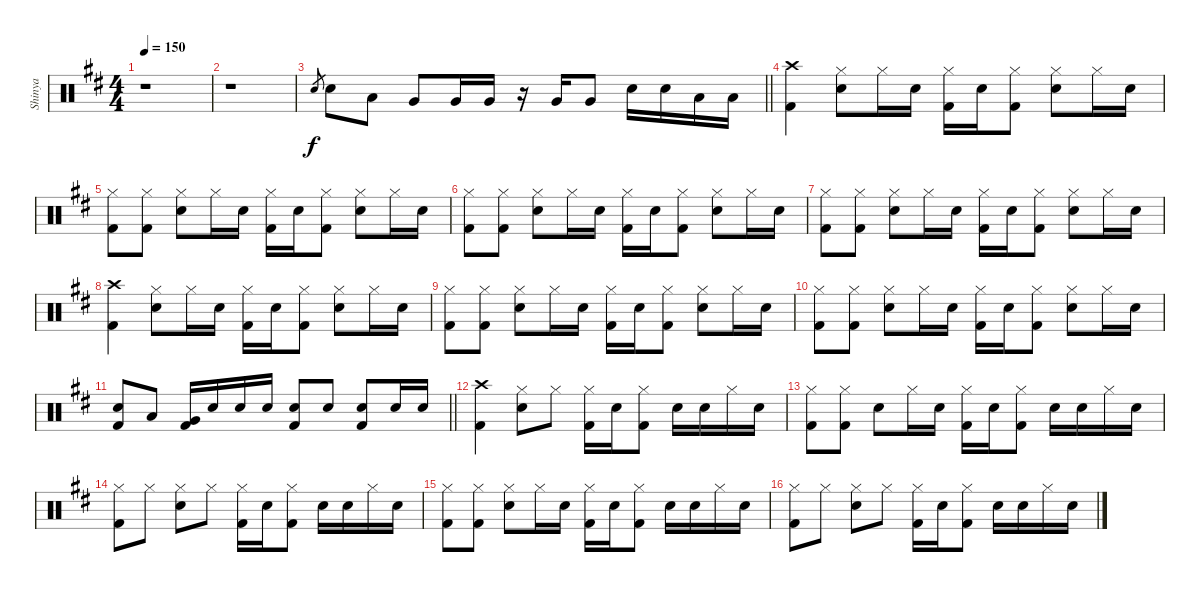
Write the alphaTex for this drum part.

\track ("Shinya" "Shinya") {instrument percussion}
\staff {score}
\articulation defaults
\ts (4 4)
\tempo 150
\clef neutral
\ks d
r.1{dy f} |
r.1 |
\barLineRight lightlight "Electric Snare (hit)".8{gr} "Electric Snare (hit)".8 "Low Tom (hit)".8 "Very Low Tom (hit)".8 "Very Low Tom (hit)".16 "Very Low Tom (hit)".16
r.16 "Very Low Tom (hit)".16 "Very Low Tom (hit)".8 "Electric Snare (hit)".16 "Electric Snare (hit)".16 "Low Tom (hit)".16 "Low Tom (hit)".16 |
("Crash high (hit)" "Kick (hit) 2").4 ("Hi-Hat (closed)" "Electric Snare (hit)").8 "Hi-Hat (closed)".16 "Electric Snare (hit)".16 ("Hi-Hat (closed)" "Kick (hit) 2").16 "Electric Snare (hit)".16 ("Hi-Hat (closed)" "Kick (hit) 2").8 ("Hi-Hat (closed)" "Electric Snare (hit)").8 "Hi-Hat (closed)".16 "Electric Snare (hit)".16 |
("Hi-Hat (closed)" "Kick (hit) 2").8 ("Hi-Hat (closed)" "Kick (hit) 2").8 ("Hi-Hat (closed)" "Electric Snare (hit)").8 "Hi-Hat (closed)".16 "Electric Snare (hit)".16 ("Hi-Hat (closed)" "Kick (hit) 2").16 "Electric Snare (hit)".16 ("Hi-Hat (closed)" "Kick (hit) 2").8 ("Hi-Hat (closed)" "Electric Snare (hit)").8 "Hi-Hat (closed)".16 "Electric Snare (hit)".16 |
("Hi-Hat (closed)" "Kick (hit) 2").8 ("Hi-Hat (closed)" "Kick (hit) 2").8 ("Hi-Hat (closed)" "Electric Snare (hit)").8 "Hi-Hat (closed)".16 "Electric Snare (hit)".16 ("Hi-Hat (closed)" "Kick (hit) 2").16 "Electric Snare (hit)".16 ("Hi-Hat (closed)" "Kick (hit) 2").8 ("Hi-Hat (closed)" "Electric Snare (hit)").8 "Hi-Hat (closed)".16 "Electric Snare (hit)".16 |
("Hi-Hat (closed)" "Kick (hit) 2").8 ("Hi-Hat (closed)" "Kick (hit) 2").8 ("Hi-Hat (closed)" "Electric Snare (hit)").8 "Hi-Hat (closed)".16 "Electric Snare (hit)".16 ("Hi-Hat (closed)" "Kick (hit) 2").16 "Electric Snare (hit)".16 ("Hi-Hat (closed)" "Kick (hit) 2").8 ("Hi-Hat (closed)" "Electric Snare (hit)").8 "Hi-Hat (closed)".16 "Electric Snare (hit)".16 |
("Crash high (hit)" "Kick (hit) 2").4 ("Hi-Hat (closed)" "Electric Snare (hit)").8 "Hi-Hat (closed)".16 "Electric Snare (hit)".16 ("Hi-Hat (closed)" "Kick (hit) 2").16 "Electric Snare (hit)".16 ("Hi-Hat (closed)" "Kick (hit) 2").8 ("Hi-Hat (closed)" "Electric Snare (hit)").8 "Hi-Hat (closed)".16 "Electric Snare (hit)".16 |
("Hi-Hat (closed)" "Kick (hit) 2").8 ("Hi-Hat (closed)" "Kick (hit) 2").8 ("Hi-Hat (closed)" "Electric Snare (hit)").8 "Hi-Hat (closed)".16 "Electric Snare (hit)".16 ("Hi-Hat (closed)" "Kick (hit) 2").16 "Electric Snare (hit)".16 ("Hi-Hat (closed)" "Kick (hit) 2").8 ("Hi-Hat (closed)" "Electric Snare (hit)").8 "Hi-Hat (closed)".16 "Electric Snare (hit)".16 |
("Hi-Hat (closed)" "Kick (hit) 2").8 ("Hi-Hat (closed)" "Kick (hit) 2").8 ("Hi-Hat (closed)" "Electric Snare (hit)").8 "Hi-Hat (closed)".16 "Electric Snare (hit)".16 ("Hi-Hat (closed)" "Kick (hit) 2").16 "Electric Snare (hit)".16 ("Hi-Hat (closed)" "Kick (hit) 2").8 ("Hi-Hat (closed)" "Electric Snare (hit)").8 "Hi-Hat (closed)".16 "Electric Snare (hit)".16 |
\barLineRight lightlight
("Electric Snare (hit)" "Kick (hit) 2").8 "Low Tom (hit)".8 ("Very Low Tom (hit)" "Kick (hit) 2").16 "Electric Snare (hit)".16 "Electric Snare (hit)".16 "Electric Snare (hit)".16 ("Electric Snare (hit)" "Kick (hit) 2").8 "Electric Snare (hit)".8 ("Electric Snare (hit)" "Kick (hit) 2").8 "Electric Snare (hit)".16 "Electric Snare (hit)".16 |
("Crash high (hit)" "Kick (hit) 2").4 ("Hi-Hat (closed)" "Electric Snare (hit)").8 "Hi-Hat (closed)".8 ("Hi-Hat (closed)" "Kick (hit) 2").16 "Electric Snare (hit)".16 ("Hi-Hat (closed)" "Kick (hit) 2").8 "Electric Snare (hit)".16 "Electric Snare (hit)".16 "Hi-Hat (closed)".16 "Electric Snare (hit)".16 |
("Hi-Hat (closed)" "Kick (hit) 2").8 ("Hi-Hat (closed)" "Kick (hit) 2").8 "Electric Snare (hit)".8 "Hi-Hat (closed)".16 "Electric Snare (hit)".16 ("Hi-Hat (closed)" "Kick (hit) 2").16 "Electric Snare (hit)".16 ("Hi-Hat (closed)" "Kick (hit) 2").8 "Electric Snare (hit)".16 "Electric Snare (hit)".16 "Hi-Hat (closed)".16 "Electric Snare (hit)".16 |
("Hi-Hat (closed)" "Kick (hit) 2").8 "Hi-Hat (closed)".8 ("Hi-Hat (closed)" "Electric Snare (hit)").8 "Hi-Hat (closed)".8 ("Hi-Hat (closed)" "Kick (hit) 2").16 "Electric Snare (hit)".16 ("Hi-Hat (closed)" "Kick (hit) 2").8 "Electric Snare (hit)".16 "Electric Snare (hit)".16 "Hi-Hat (closed)".16 "Electric Snare (hit)".16 |
("Hi-Hat (closed)" "Kick (hit) 2").8 ("Hi-Hat (closed)" "Kick (hit) 2").8 ("Hi-Hat (closed)" "Electric Snare (hit)").8 "Hi-Hat (closed)".16 "Electric Snare (hit)".16 ("Hi-Hat (closed)" "Kick (hit) 2").16 "Electric Snare (hit)".16 ("Hi-Hat (closed)" "Kick (hit) 2").8 "Electric Snare (hit)".16 "Electric Snare (hit)".16 "Hi-Hat (closed)".16 "Electric Snare (hit)".16 |
("Hi-Hat (closed)" "Kick (hit) 2").8 "Hi-Hat (closed)".8 ("Hi-Hat (closed)" "Electric Snare (hit)").8 "Hi-Hat (closed)".8 ("Hi-Hat (closed)" "Kick (hit) 2").16 "Electric Snare (hit)".16 ("Hi-Hat (closed)" "Kick (hit) 2").8 "Electric Snare (hit)".16 "Electric Snare (hit)".16 "Hi-Hat (closed)".16 "Electric Snare (hit)".16
